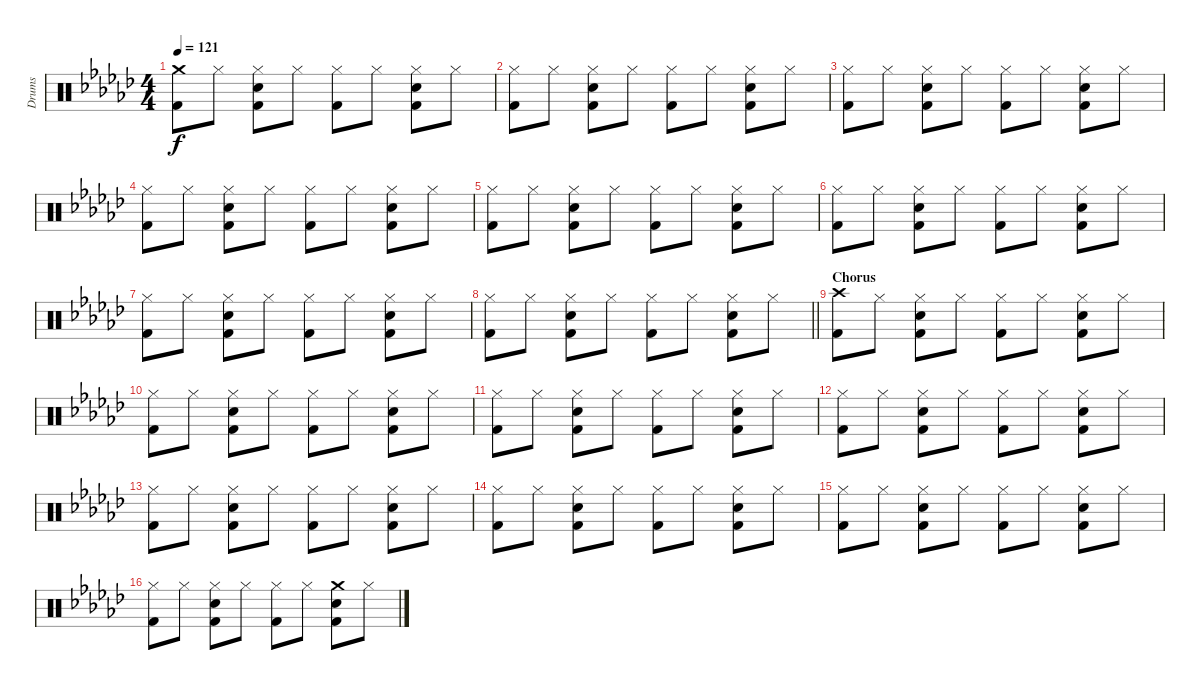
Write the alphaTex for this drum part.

\track ("Drums" "Drums") {instrument percussion}
\staff {score}
\articulation defaults
\ts (4 4)
\tempo 121
\clef neutral
\ks ebminor
("Crash medium (hit)" "Kick (hit) 2").8{dy f} "Hi-Hat (closed)".8 ("Hi-Hat (closed)" "Snare (hit) 2" "Kick (hit) 2").8 "Hi-Hat (closed)".8 ("Hi-Hat (closed)" "Kick (hit) 2").8 "Hi-Hat (closed)".8 ("Hi-Hat (closed)" "Snare (hit) 2" "Kick (hit) 2").8 "Hi-Hat (closed)".8 |
("Hi-Hat (closed)" "Kick (hit) 2").8 "Hi-Hat (closed)".8 ("Hi-Hat (closed)" "Snare (hit) 2" "Kick (hit) 2").8 "Hi-Hat (closed)".8 ("Hi-Hat (closed)" "Kick (hit) 2").8 "Hi-Hat (closed)".8 ("Hi-Hat (closed)" "Snare (hit) 2" "Kick (hit) 2").8 "Hi-Hat (closed)".8 |
("Hi-Hat (closed)" "Kick (hit) 2").8 "Hi-Hat (closed)".8 ("Hi-Hat (closed)" "Snare (hit) 2" "Kick (hit) 2").8 "Hi-Hat (closed)".8 ("Hi-Hat (closed)" "Kick (hit) 2").8 "Hi-Hat (closed)".8 ("Hi-Hat (closed)" "Snare (hit) 2" "Kick (hit) 2").8 "Hi-Hat (closed)".8 |
("Hi-Hat (closed)" "Kick (hit) 2").8 "Hi-Hat (closed)".8 ("Hi-Hat (closed)" "Snare (hit) 2" "Kick (hit) 2").8 "Hi-Hat (closed)".8 ("Hi-Hat (closed)" "Kick (hit) 2").8 "Hi-Hat (closed)".8 ("Hi-Hat (closed)" "Snare (hit) 2" "Kick (hit) 2").8 "Hi-Hat (closed)".8 |
("Hi-Hat (closed)" "Kick (hit) 2").8 "Hi-Hat (closed)".8 ("Hi-Hat (closed)" "Snare (hit) 2" "Kick (hit) 2").8 "Hi-Hat (closed)".8 ("Hi-Hat (closed)" "Kick (hit) 2").8 "Hi-Hat (closed)".8 ("Hi-Hat (closed)" "Snare (hit) 2" "Kick (hit) 2").8 "Hi-Hat (closed)".8 |
("Hi-Hat (closed)" "Kick (hit) 2").8 "Hi-Hat (closed)".8 ("Hi-Hat (closed)" "Snare (hit) 2" "Kick (hit) 2").8 "Hi-Hat (closed)".8 ("Hi-Hat (closed)" "Kick (hit) 2").8 "Hi-Hat (closed)".8 ("Hi-Hat (closed)" "Snare (hit) 2" "Kick (hit) 2").8 "Hi-Hat (closed)".8 |
("Hi-Hat (closed)" "Kick (hit) 2").8 "Hi-Hat (closed)".8 ("Hi-Hat (closed)" "Snare (hit) 2" "Kick (hit) 2").8 "Hi-Hat (closed)".8 ("Hi-Hat (closed)" "Kick (hit) 2").8 "Hi-Hat (closed)".8 ("Hi-Hat (closed)" "Snare (hit) 2" "Kick (hit) 2").8 "Hi-Hat (closed)".8 |
\barLineRight lightlight
("Hi-Hat (closed)" "Kick (hit) 2").8 "Hi-Hat (closed)".8 ("Hi-Hat (closed)" "Snare (hit) 2" "Kick (hit) 2").8 "Hi-Hat (closed)".8 ("Hi-Hat (closed)" "Kick (hit) 2").8 "Hi-Hat (closed)".8 ("Hi-Hat (closed)" "Snare (hit) 2" "Kick (hit) 2").8 "Hi-Hat (closed)".8 |
\section ("" "Chorus")
("Crash high (hit)" "Kick (hit) 2").8 "Hi-Hat (closed)".8 ("Hi-Hat (closed)" "Snare (hit) 2" "Kick (hit) 2").8 "Hi-Hat (closed)".8 ("Hi-Hat (closed)" "Kick (hit) 2").8 "Hi-Hat (closed)".8 ("Hi-Hat (closed)" "Snare (hit) 2" "Kick (hit) 2").8 "Hi-Hat (closed)".8 |
("Hi-Hat (closed)" "Kick (hit) 2").8 "Hi-Hat (closed)".8 ("Hi-Hat (closed)" "Snare (hit) 2" "Kick (hit) 2").8 "Hi-Hat (closed)".8 ("Hi-Hat (closed)" "Kick (hit) 2").8 "Hi-Hat (closed)".8 ("Hi-Hat (closed)" "Snare (hit) 2" "Kick (hit) 2").8 "Hi-Hat (closed)".8 |
("Hi-Hat (closed)" "Kick (hit) 2").8 "Hi-Hat (closed)".8 ("Hi-Hat (closed)" "Snare (hit) 2" "Kick (hit) 2").8 "Hi-Hat (closed)".8 ("Hi-Hat (closed)" "Kick (hit) 2").8 "Hi-Hat (closed)".8 ("Hi-Hat (closed)" "Snare (hit) 2" "Kick (hit) 2").8 "Hi-Hat (closed)".8 |
("Hi-Hat (closed)" "Kick (hit) 2").8 "Hi-Hat (closed)".8 ("Hi-Hat (closed)" "Snare (hit) 2" "Kick (hit) 2").8 "Hi-Hat (closed)".8 ("Hi-Hat (closed)" "Kick (hit) 2").8 "Hi-Hat (closed)".8 ("Hi-Hat (closed)" "Snare (hit) 2" "Kick (hit) 2").8 "Hi-Hat (closed)".8 |
("Hi-Hat (closed)" "Kick (hit) 2").8 "Hi-Hat (closed)".8 ("Hi-Hat (closed)" "Snare (hit) 2" "Kick (hit) 2").8 "Hi-Hat (closed)".8 ("Hi-Hat (closed)" "Kick (hit) 2").8 "Hi-Hat (closed)".8 ("Hi-Hat (closed)" "Snare (hit) 2" "Kick (hit) 2").8 "Hi-Hat (closed)".8 |
("Hi-Hat (closed)" "Kick (hit) 2").8 "Hi-Hat (closed)".8 ("Hi-Hat (closed)" "Snare (hit) 2" "Kick (hit) 2").8 "Hi-Hat (closed)".8 ("Hi-Hat (closed)" "Kick (hit) 2").8 "Hi-Hat (closed)".8 ("Hi-Hat (closed)" "Snare (hit) 2" "Kick (hit) 2").8 "Hi-Hat (closed)".8 |
("Hi-Hat (closed)" "Kick (hit) 2").8 "Hi-Hat (closed)".8 ("Hi-Hat (closed)" "Snare (hit) 2" "Kick (hit) 2").8 "Hi-Hat (closed)".8 ("Hi-Hat (closed)" "Kick (hit) 2").8 "Hi-Hat (closed)".8 ("Hi-Hat (closed)" "Snare (hit) 2" "Kick (hit) 2").8 "Hi-Hat (closed)".8 |
("Hi-Hat (closed)" "Kick (hit) 2").8 "Hi-Hat (closed)".8 ("Hi-Hat (closed)" "Snare (hit) 2" "Kick (hit) 2").8 "Hi-Hat (closed)".8 ("Hi-Hat (closed)" "Kick (hit) 2").8 "Hi-Hat (closed)".8 ("Crash medium (hit)" "Snare (hit) 2" "Kick (hit) 2").8 "Hi-Hat (closed)".8
